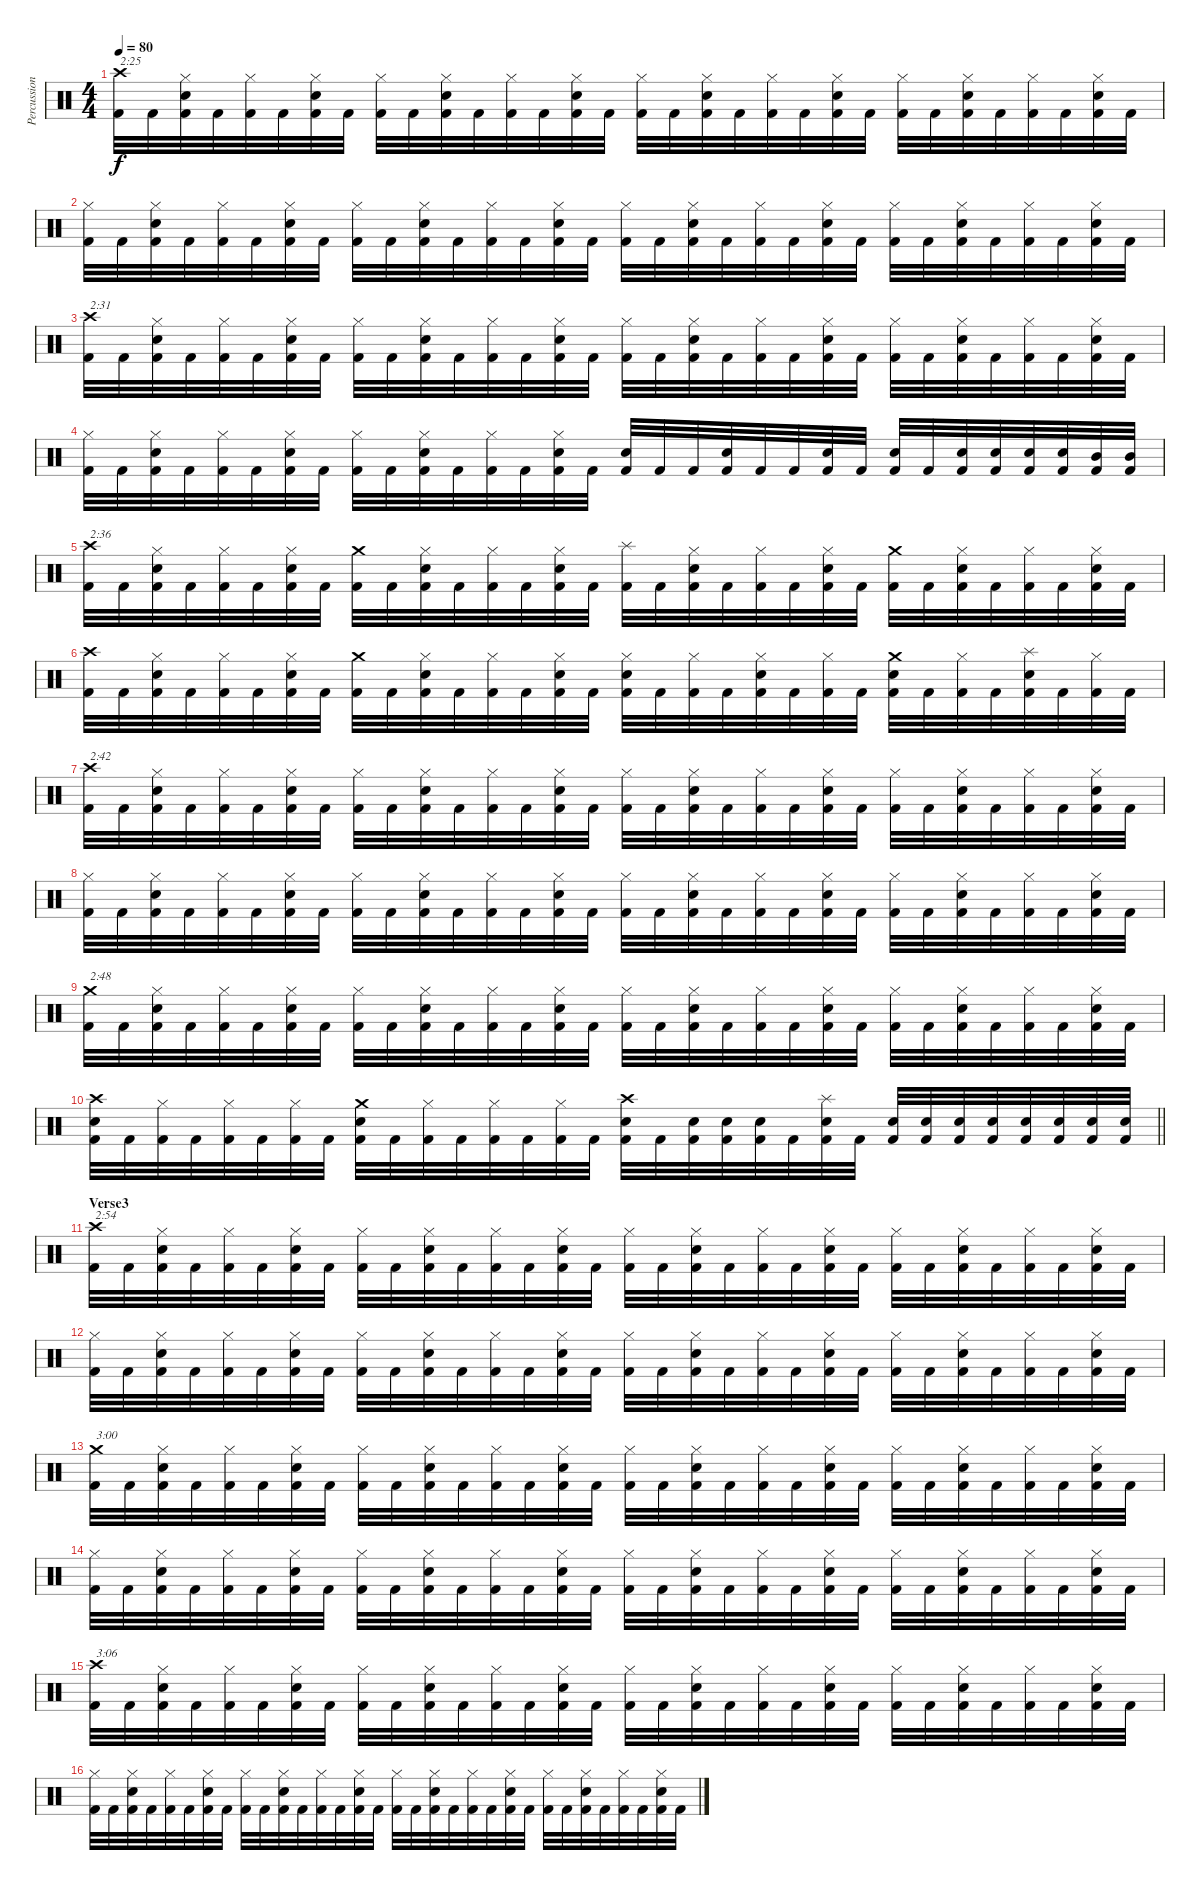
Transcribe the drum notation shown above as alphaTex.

\track ("Percussion" "Percussion") {instrument percussion}
\staff {score}
\articulation defaults
\ts (4 4)
\tempo 80
\clef neutral
\ks c
("Crash high (hit)" "Kick (hit) 2").32{txt "2:25" dy f} "Kick (hit) 2".32 ("Hi-Hat (closed)" "Snare (hit) 2" "Kick (hit) 2").32 "Kick (hit) 2".32 ("Hi-Hat (closed)" "Kick (hit) 2").32 "Kick (hit) 2".32 ("Hi-Hat (closed)" "Snare (hit) 2" "Kick (hit) 2").32 "Kick (hit) 2".32 ("Hi-Hat (closed)" "Kick (hit) 2").32 "Kick (hit) 2".32 ("Hi-Hat (closed)" "Snare (hit) 2" "Kick (hit) 2").32 "Kick (hit) 2".32 ("Hi-Hat (closed)" "Kick (hit) 2").32 "Kick (hit) 2".32 ("Hi-Hat (closed)" "Snare (hit) 2" "Kick (hit) 2").32 "Kick (hit) 2".32 ("Hi-Hat (closed)" "Kick (hit) 2").32 "Kick (hit) 2".32 ("Hi-Hat (closed)" "Snare (hit) 2" "Kick (hit) 2").32 "Kick (hit) 2".32 ("Hi-Hat (closed)" "Kick (hit) 2").32 "Kick (hit) 2".32 ("Hi-Hat (closed)" "Snare (hit) 2" "Kick (hit) 2").32 "Kick (hit) 2".32 ("Hi-Hat (closed)" "Kick (hit) 2").32 "Kick (hit) 2".32 ("Hi-Hat (closed)" "Snare (hit) 2" "Kick (hit) 2").32 "Kick (hit) 2".32 ("Hi-Hat (closed)" "Kick (hit) 2").32 "Kick (hit) 2".32 ("Hi-Hat (closed)" "Snare (hit) 2" "Kick (hit) 2").32 "Kick (hit) 2".32 |
("Hi-Hat (closed)" "Kick (hit) 2").32 "Kick (hit) 2".32 ("Hi-Hat (closed)" "Snare (hit) 2" "Kick (hit) 2").32 "Kick (hit) 2".32 ("Hi-Hat (closed)" "Kick (hit) 2").32 "Kick (hit) 2".32 ("Hi-Hat (closed)" "Snare (hit) 2" "Kick (hit) 2").32 "Kick (hit) 2".32 ("Hi-Hat (closed)" "Kick (hit) 2").32 "Kick (hit) 2".32 ("Hi-Hat (closed)" "Snare (hit) 2" "Kick (hit) 2").32 "Kick (hit) 2".32 ("Hi-Hat (closed)" "Kick (hit) 2").32 "Kick (hit) 2".32 ("Hi-Hat (closed)" "Snare (hit) 2" "Kick (hit) 2").32 "Kick (hit) 2".32 ("Hi-Hat (closed)" "Kick (hit) 2").32 "Kick (hit) 2".32 ("Hi-Hat (closed)" "Snare (hit) 2" "Kick (hit) 2").32 "Kick (hit) 2".32 ("Hi-Hat (closed)" "Kick (hit) 2").32 "Kick (hit) 2".32 ("Hi-Hat (closed)" "Snare (hit) 2" "Kick (hit) 2").32 "Kick (hit) 2".32 ("Hi-Hat (closed)" "Kick (hit) 2").32 "Kick (hit) 2".32 ("Hi-Hat (closed)" "Snare (hit) 2" "Kick (hit) 2").32 "Kick (hit) 2".32 ("Hi-Hat (closed)" "Kick (hit) 2").32 "Kick (hit) 2".32 ("Hi-Hat (closed)" "Snare (hit) 2" "Kick (hit) 2").32 "Kick (hit) 2".32 |
("Crash high (hit)" "Kick (hit) 2").32{txt "2:31"} "Kick (hit) 2".32 ("Hi-Hat (closed)" "Snare (hit) 2" "Kick (hit) 2").32 "Kick (hit) 2".32 ("Hi-Hat (closed)" "Kick (hit) 2").32 "Kick (hit) 2".32 ("Hi-Hat (closed)" "Snare (hit) 2" "Kick (hit) 2").32 "Kick (hit) 2".32 ("Hi-Hat (closed)" "Kick (hit) 2").32 "Kick (hit) 2".32 ("Hi-Hat (closed)" "Snare (hit) 2" "Kick (hit) 2").32 "Kick (hit) 2".32 ("Hi-Hat (closed)" "Kick (hit) 2").32 "Kick (hit) 2".32 ("Hi-Hat (closed)" "Snare (hit) 2" "Kick (hit) 2").32 "Kick (hit) 2".32 ("Hi-Hat (closed)" "Kick (hit) 2").32 "Kick (hit) 2".32 ("Hi-Hat (closed)" "Snare (hit) 2" "Kick (hit) 2").32 "Kick (hit) 2".32 ("Hi-Hat (closed)" "Kick (hit) 2").32 "Kick (hit) 2".32 ("Hi-Hat (closed)" "Snare (hit) 2" "Kick (hit) 2").32 "Kick (hit) 2".32 ("Hi-Hat (closed)" "Kick (hit) 2").32 "Kick (hit) 2".32 ("Hi-Hat (closed)" "Snare (hit) 2" "Kick (hit) 2").32 "Kick (hit) 2".32 ("Hi-Hat (closed)" "Kick (hit) 2").32 "Kick (hit) 2".32 ("Hi-Hat (closed)" "Snare (hit) 2" "Kick (hit) 2").32 "Kick (hit) 2".32 |
("Hi-Hat (closed)" "Kick (hit) 2").32 "Kick (hit) 2".32 ("Hi-Hat (closed)" "Snare (hit) 2" "Kick (hit) 2").32 "Kick (hit) 2".32 ("Hi-Hat (closed)" "Kick (hit) 2").32 "Kick (hit) 2".32 ("Hi-Hat (closed)" "Snare (hit) 2" "Kick (hit) 2").32 "Kick (hit) 2".32 ("Hi-Hat (closed)" "Kick (hit) 2").32 "Kick (hit) 2".32 ("Hi-Hat (closed)" "Snare (hit) 2" "Kick (hit) 2").32 "Kick (hit) 2".32 ("Hi-Hat (closed)" "Kick (hit) 2").32 "Kick (hit) 2".32 ("Hi-Hat (closed)" "Snare (hit) 2" "Kick (hit) 2").32 "Kick (hit) 2".32 ("Snare (hit) 2" "Kick (hit) 2").32 "Kick (hit) 2".32 "Kick (hit) 2".32 ("Snare (hit) 2" "Kick (hit) 2").32 "Kick (hit) 2".32 "Kick (hit) 2".32 ("Snare (hit) 2" "Kick (hit) 2").32 "Kick (hit) 2".32 ("Snare (hit) 2" "Kick (hit) 2").32 "Kick (hit) 2".32 ("Snare (hit) 2" "Kick (hit) 2").32 ("Snare (hit) 2" "Kick (hit) 2").32 ("Snare (hit) 2" "Kick (hit) 2").32 ("Snare (hit) 2" "Kick (hit) 2").32 ("Mid Tom (hit)" "Kick (hit) 2").32 ("Mid Tom (hit)" "Kick (hit) 2").32 |
("Crash high (hit)" "Kick (hit) 2").32{txt "2:36"} "Kick (hit) 2".32 ("Hi-Hat (closed)" "Snare (hit) 2" "Kick (hit) 2").32 "Kick (hit) 2".32 ("Hi-Hat (closed)" "Kick (hit) 2").32 "Kick (hit) 2".32 ("Hi-Hat (closed)" "Snare (hit) 2" "Kick (hit) 2").32 "Kick (hit) 2".32 ("Crash medium (hit)" "Kick (hit) 2").32 "Kick (hit) 2".32 ("Hi-Hat (closed)" "Snare (hit) 2" "Kick (hit) 2").32 "Kick (hit) 2".32 ("Hi-Hat (closed)" "Kick (hit) 2").32 "Kick (hit) 2".32 ("Hi-Hat (closed)" "Snare (hit) 2" "Kick (hit) 2").32 "Kick (hit) 2".32 ("Splash (hit)" "Kick (hit) 2").32 "Kick (hit) 2".32 ("Hi-Hat (closed)" "Snare (hit) 2" "Kick (hit) 2").32 "Kick (hit) 2".32 ("Hi-Hat (closed)" "Kick (hit) 2").32 "Kick (hit) 2".32 ("Hi-Hat (closed)" "Snare (hit) 2" "Kick (hit) 2").32 "Kick (hit) 2".32 ("Crash medium (hit)" "Kick (hit) 2").32 "Kick (hit) 2".32 ("Hi-Hat (closed)" "Snare (hit) 2" "Kick (hit) 2").32 "Kick (hit) 2".32 ("Hi-Hat (closed)" "Kick (hit) 2").32 "Kick (hit) 2".32 ("Hi-Hat (closed)" "Snare (hit) 2" "Kick (hit) 2").32 "Kick (hit) 2".32 |
("Crash high (hit)" "Kick (hit) 2").32 "Kick (hit) 2".32 ("Hi-Hat (closed)" "Snare (hit) 2" "Kick (hit) 2").32 "Kick (hit) 2".32 ("Hi-Hat (closed)" "Kick (hit) 2").32 "Kick (hit) 2".32 ("Hi-Hat (closed)" "Snare (hit) 2" "Kick (hit) 2").32 "Kick (hit) 2".32 ("Crash medium (hit)" "Kick (hit) 2").32 "Kick (hit) 2".32 ("Hi-Hat (closed)" "Snare (hit) 2" "Kick (hit) 2").32 "Kick (hit) 2".32 ("Hi-Hat (closed)" "Kick (hit) 2").32 "Kick (hit) 2".32 ("Hi-Hat (closed)" "Snare (hit) 2" "Kick (hit) 2").32 "Kick (hit) 2".32 ("Hi-Hat (closed)" "Snare (hit) 2" "Kick (hit) 2").32 "Kick (hit) 2".32 ("Hi-Hat (closed)" "Kick (hit) 2").32 "Kick (hit) 2".32 ("Hi-Hat (closed)" "Snare (hit) 2" "Kick (hit) 2").32 "Kick (hit) 2".32 ("Hi-Hat (closed)" "Kick (hit) 2").32 "Kick (hit) 2".32 ("Crash medium (hit)" "Snare (hit) 2" "Kick (hit) 2").32 "Kick (hit) 2".32 ("Hi-Hat (closed)" "Kick (hit) 2").32 "Kick (hit) 2".32 ("Splash (hit)" "Snare (hit) 2" "Kick (hit) 2").32 "Kick (hit) 2".32 ("Hi-Hat (closed)" "Kick (hit) 2").32 "Kick (hit) 2".32 |
("Crash high (hit)" "Kick (hit) 2").32{txt "2:42"} "Kick (hit) 2".32 ("Hi-Hat (closed)" "Snare (hit) 2" "Kick (hit) 2").32 "Kick (hit) 2".32 ("Hi-Hat (closed)" "Kick (hit) 2").32 "Kick (hit) 2".32 ("Hi-Hat (closed)" "Snare (hit) 2" "Kick (hit) 2").32 "Kick (hit) 2".32 ("Hi-Hat (closed)" "Kick (hit) 2").32 "Kick (hit) 2".32 ("Hi-Hat (closed)" "Snare (hit) 2" "Kick (hit) 2").32 "Kick (hit) 2".32 ("Hi-Hat (closed)" "Kick (hit) 2").32 "Kick (hit) 2".32 ("Hi-Hat (closed)" "Snare (hit) 2" "Kick (hit) 2").32 "Kick (hit) 2".32 ("Hi-Hat (closed)" "Kick (hit) 2").32 "Kick (hit) 2".32 ("Hi-Hat (closed)" "Snare (hit) 2" "Kick (hit) 2").32 "Kick (hit) 2".32 ("Hi-Hat (closed)" "Kick (hit) 2").32 "Kick (hit) 2".32 ("Hi-Hat (closed)" "Snare (hit) 2" "Kick (hit) 2").32 "Kick (hit) 2".32 ("Hi-Hat (closed)" "Kick (hit) 2").32 "Kick (hit) 2".32 ("Hi-Hat (closed)" "Snare (hit) 2" "Kick (hit) 2").32 "Kick (hit) 2".32 ("Hi-Hat (closed)" "Kick (hit) 2").32 "Kick (hit) 2".32 ("Hi-Hat (closed)" "Snare (hit) 2" "Kick (hit) 2").32 "Kick (hit) 2".32 |
("Hi-Hat (closed)" "Kick (hit) 2").32 "Kick (hit) 2".32 ("Hi-Hat (closed)" "Snare (hit) 2" "Kick (hit) 2").32 "Kick (hit) 2".32 ("Hi-Hat (closed)" "Kick (hit) 2").32 "Kick (hit) 2".32 ("Hi-Hat (closed)" "Snare (hit) 2" "Kick (hit) 2").32 "Kick (hit) 2".32 ("Hi-Hat (closed)" "Kick (hit) 2").32 "Kick (hit) 2".32 ("Hi-Hat (closed)" "Snare (hit) 2" "Kick (hit) 2").32 "Kick (hit) 2".32 ("Hi-Hat (closed)" "Kick (hit) 2").32 "Kick (hit) 2".32 ("Hi-Hat (closed)" "Snare (hit) 2" "Kick (hit) 2").32 "Kick (hit) 2".32 ("Hi-Hat (closed)" "Kick (hit) 2").32 "Kick (hit) 2".32 ("Hi-Hat (closed)" "Snare (hit) 2" "Kick (hit) 2").32 "Kick (hit) 2".32 ("Hi-Hat (closed)" "Kick (hit) 2").32 "Kick (hit) 2".32 ("Hi-Hat (closed)" "Snare (hit) 2" "Kick (hit) 2").32 "Kick (hit) 2".32 ("Hi-Hat (closed)" "Kick (hit) 2").32 "Kick (hit) 2".32 ("Hi-Hat (closed)" "Snare (hit) 2" "Kick (hit) 2").32 "Kick (hit) 2".32 ("Hi-Hat (closed)" "Kick (hit) 2").32 "Kick (hit) 2".32 ("Hi-Hat (closed)" "Snare (hit) 2" "Kick (hit) 2").32 "Kick (hit) 2".32 |
("Crash medium (hit)" "Kick (hit) 2").32{txt "2:48"} "Kick (hit) 2".32 ("Hi-Hat (closed)" "Snare (hit) 2" "Kick (hit) 2").32 "Kick (hit) 2".32 ("Hi-Hat (closed)" "Kick (hit) 2").32 "Kick (hit) 2".32 ("Hi-Hat (closed)" "Snare (hit) 2" "Kick (hit) 2").32 "Kick (hit) 2".32 ("Hi-Hat (closed)" "Kick (hit) 2").32 "Kick (hit) 2".32 ("Hi-Hat (closed)" "Snare (hit) 2" "Kick (hit) 2").32 "Kick (hit) 2".32 ("Hi-Hat (closed)" "Kick (hit) 2").32 "Kick (hit) 2".32 ("Hi-Hat (closed)" "Snare (hit) 2" "Kick (hit) 2").32 "Kick (hit) 2".32 ("Hi-Hat (closed)" "Kick (hit) 2").32 "Kick (hit) 2".32 ("Hi-Hat (closed)" "Snare (hit) 2" "Kick (hit) 2").32 "Kick (hit) 2".32 ("Hi-Hat (closed)" "Kick (hit) 2").32 "Kick (hit) 2".32 ("Hi-Hat (closed)" "Snare (hit) 2" "Kick (hit) 2").32 "Kick (hit) 2".32 ("Hi-Hat (closed)" "Kick (hit) 2").32 "Kick (hit) 2".32 ("Hi-Hat (closed)" "Snare (hit) 2" "Kick (hit) 2").32 "Kick (hit) 2".32 ("Hi-Hat (closed)" "Kick (hit) 2").32 "Kick (hit) 2".32 ("Hi-Hat (closed)" "Snare (hit) 2" "Kick (hit) 2").32 "Kick (hit) 2".32 |
\barLineRight lightlight
("Crash high (hit)" "Snare (hit) 2" "Kick (hit) 2").32 "Kick (hit) 2".32 ("Hi-Hat (closed)" "Kick (hit) 2").32 "Kick (hit) 2".32 ("Hi-Hat (closed)" "Kick (hit) 2").32 "Kick (hit) 2".32 ("Hi-Hat (closed)" "Kick (hit) 2").32 "Kick (hit) 2".32 ("Crash medium (hit)" "Snare (hit) 2" "Kick (hit) 2").32 "Kick (hit) 2".32 ("Hi-Hat (closed)" "Kick (hit) 2").32 "Kick (hit) 2".32 ("Hi-Hat (closed)" "Kick (hit) 2").32 "Kick (hit) 2".32 ("Hi-Hat (closed)" "Kick (hit) 2").32 "Kick (hit) 2".32 ("Crash high (hit)" "Snare (hit) 2" "Kick (hit) 2").32 "Kick (hit) 2".32 ("Snare (hit) 2" "Kick (hit) 2").32 ("Snare (hit) 2" "Kick (hit) 2").32 ("Snare (hit) 2" "Kick (hit) 2").32 "Kick (hit) 2".32 ("Splash (hit)" "Snare (hit) 2" "Kick (hit) 2").32 "Kick (hit) 2".32 ("Snare (hit) 2" "Kick (hit) 2").32 ("Snare (hit) 2" "Kick (hit) 2").32 ("Snare (hit) 2" "Kick (hit) 2").32 ("Snare (hit) 2" "Kick (hit) 2").32 ("Snare (hit) 2" "Kick (hit) 2").32 ("Snare (hit) 2" "Kick (hit) 2").32 ("Snare (hit) 2" "Kick (hit) 2").32 ("Snare (hit) 2" "Kick (hit) 2").32 |
\section ("" "Verse3")
("Crash high (hit)" "Kick (hit) 2").32{txt "2:54"} "Kick (hit) 2".32 ("Hi-Hat (closed)" "Snare (hit) 2" "Kick (hit) 2").32 "Kick (hit) 2".32 ("Hi-Hat (closed)" "Kick (hit) 2").32 "Kick (hit) 2".32 ("Hi-Hat (closed)" "Snare (hit) 2" "Kick (hit) 2").32 "Kick (hit) 2".32 ("Hi-Hat (closed)" "Kick (hit) 2").32 "Kick (hit) 2".32 ("Hi-Hat (closed)" "Snare (hit) 2" "Kick (hit) 2").32 "Kick (hit) 2".32 ("Hi-Hat (closed)" "Kick (hit) 2").32 "Kick (hit) 2".32 ("Hi-Hat (closed)" "Snare (hit) 2" "Kick (hit) 2").32 "Kick (hit) 2".32 ("Hi-Hat (closed)" "Kick (hit) 2").32 "Kick (hit) 2".32 ("Hi-Hat (closed)" "Snare (hit) 2" "Kick (hit) 2").32 "Kick (hit) 2".32 ("Hi-Hat (closed)" "Kick (hit) 2").32 "Kick (hit) 2".32 ("Hi-Hat (closed)" "Snare (hit) 2" "Kick (hit) 2").32 "Kick (hit) 2".32 ("Hi-Hat (closed)" "Kick (hit) 2").32 "Kick (hit) 2".32 ("Hi-Hat (closed)" "Snare (hit) 2" "Kick (hit) 2").32 "Kick (hit) 2".32 ("Hi-Hat (closed)" "Kick (hit) 2").32 "Kick (hit) 2".32 ("Hi-Hat (closed)" "Snare (hit) 2" "Kick (hit) 2").32 "Kick (hit) 2".32 |
("Hi-Hat (closed)" "Kick (hit) 2").32 "Kick (hit) 2".32 ("Hi-Hat (closed)" "Snare (hit) 2" "Kick (hit) 2").32 "Kick (hit) 2".32 ("Hi-Hat (closed)" "Kick (hit) 2").32 "Kick (hit) 2".32 ("Hi-Hat (closed)" "Snare (hit) 2" "Kick (hit) 2").32 "Kick (hit) 2".32 ("Hi-Hat (closed)" "Kick (hit) 2").32 "Kick (hit) 2".32 ("Hi-Hat (closed)" "Snare (hit) 2" "Kick (hit) 2").32 "Kick (hit) 2".32 ("Hi-Hat (closed)" "Kick (hit) 2").32 "Kick (hit) 2".32 ("Hi-Hat (closed)" "Snare (hit) 2" "Kick (hit) 2").32 "Kick (hit) 2".32 ("Hi-Hat (closed)" "Kick (hit) 2").32 "Kick (hit) 2".32 ("Hi-Hat (closed)" "Snare (hit) 2" "Kick (hit) 2").32 "Kick (hit) 2".32 ("Hi-Hat (closed)" "Kick (hit) 2").32 "Kick (hit) 2".32 ("Hi-Hat (closed)" "Snare (hit) 2" "Kick (hit) 2").32 "Kick (hit) 2".32 ("Hi-Hat (closed)" "Kick (hit) 2").32 "Kick (hit) 2".32 ("Hi-Hat (closed)" "Snare (hit) 2" "Kick (hit) 2").32 "Kick (hit) 2".32 ("Hi-Hat (closed)" "Kick (hit) 2").32 "Kick (hit) 2".32 ("Hi-Hat (closed)" "Snare (hit) 2" "Kick (hit) 2").32 "Kick (hit) 2".32 |
("Crash medium (hit)" "Kick (hit) 2").32{txt "3:00"} "Kick (hit) 2".32 ("Hi-Hat (closed)" "Snare (hit) 2" "Kick (hit) 2").32 "Kick (hit) 2".32 ("Hi-Hat (closed)" "Kick (hit) 2").32 "Kick (hit) 2".32 ("Hi-Hat (closed)" "Snare (hit) 2" "Kick (hit) 2").32 "Kick (hit) 2".32 ("Hi-Hat (closed)" "Kick (hit) 2").32 "Kick (hit) 2".32 ("Hi-Hat (closed)" "Snare (hit) 2" "Kick (hit) 2").32 "Kick (hit) 2".32 ("Hi-Hat (closed)" "Kick (hit) 2").32 "Kick (hit) 2".32 ("Hi-Hat (closed)" "Snare (hit) 2" "Kick (hit) 2").32 "Kick (hit) 2".32 ("Hi-Hat (closed)" "Kick (hit) 2").32 "Kick (hit) 2".32 ("Hi-Hat (closed)" "Snare (hit) 2" "Kick (hit) 2").32 "Kick (hit) 2".32 ("Hi-Hat (closed)" "Kick (hit) 2").32 "Kick (hit) 2".32 ("Hi-Hat (closed)" "Snare (hit) 2" "Kick (hit) 2").32 "Kick (hit) 2".32 ("Hi-Hat (closed)" "Kick (hit) 2").32 "Kick (hit) 2".32 ("Hi-Hat (closed)" "Snare (hit) 2" "Kick (hit) 2").32 "Kick (hit) 2".32 ("Hi-Hat (closed)" "Kick (hit) 2").32 "Kick (hit) 2".32 ("Hi-Hat (closed)" "Snare (hit) 2" "Kick (hit) 2").32 "Kick (hit) 2".32 |
("Hi-Hat (closed)" "Kick (hit) 2").32 "Kick (hit) 2".32 ("Hi-Hat (closed)" "Snare (hit) 2" "Kick (hit) 2").32 "Kick (hit) 2".32 ("Hi-Hat (closed)" "Kick (hit) 2").32 "Kick (hit) 2".32 ("Hi-Hat (closed)" "Snare (hit) 2" "Kick (hit) 2").32 "Kick (hit) 2".32 ("Hi-Hat (closed)" "Kick (hit) 2").32 "Kick (hit) 2".32 ("Hi-Hat (closed)" "Snare (hit) 2" "Kick (hit) 2").32 "Kick (hit) 2".32 ("Hi-Hat (closed)" "Kick (hit) 2").32 "Kick (hit) 2".32 ("Hi-Hat (closed)" "Snare (hit) 2" "Kick (hit) 2").32 "Kick (hit) 2".32 ("Hi-Hat (closed)" "Kick (hit) 2").32 "Kick (hit) 2".32 ("Hi-Hat (closed)" "Snare (hit) 2" "Kick (hit) 2").32 "Kick (hit) 2".32 ("Hi-Hat (closed)" "Kick (hit) 2").32 "Kick (hit) 2".32 ("Hi-Hat (closed)" "Snare (hit) 2" "Kick (hit) 2").32 "Kick (hit) 2".32 ("Hi-Hat (closed)" "Kick (hit) 2").32 "Kick (hit) 2".32 ("Hi-Hat (closed)" "Snare (hit) 2" "Kick (hit) 2").32 "Kick (hit) 2".32 ("Hi-Hat (closed)" "Kick (hit) 2").32 "Kick (hit) 2".32 ("Hi-Hat (closed)" "Snare (hit) 2" "Kick (hit) 2").32 "Kick (hit) 2".32 |
("Crash high (hit)" "Kick (hit) 2").32{txt "3:06"} "Kick (hit) 2".32 ("Hi-Hat (closed)" "Snare (hit) 2" "Kick (hit) 2").32 "Kick (hit) 2".32 ("Hi-Hat (closed)" "Kick (hit) 2").32 "Kick (hit) 2".32 ("Hi-Hat (closed)" "Snare (hit) 2" "Kick (hit) 2").32 "Kick (hit) 2".32 ("Hi-Hat (closed)" "Kick (hit) 2").32 "Kick (hit) 2".32 ("Hi-Hat (closed)" "Snare (hit) 2" "Kick (hit) 2").32 "Kick (hit) 2".32 ("Hi-Hat (closed)" "Kick (hit) 2").32 "Kick (hit) 2".32 ("Hi-Hat (closed)" "Snare (hit) 2" "Kick (hit) 2").32 "Kick (hit) 2".32 ("Hi-Hat (closed)" "Kick (hit) 2").32 "Kick (hit) 2".32 ("Hi-Hat (closed)" "Snare (hit) 2" "Kick (hit) 2").32 "Kick (hit) 2".32 ("Hi-Hat (closed)" "Kick (hit) 2").32 "Kick (hit) 2".32 ("Hi-Hat (closed)" "Snare (hit) 2" "Kick (hit) 2").32 "Kick (hit) 2".32 ("Hi-Hat (closed)" "Kick (hit) 2").32 "Kick (hit) 2".32 ("Hi-Hat (closed)" "Snare (hit) 2" "Kick (hit) 2").32 "Kick (hit) 2".32 ("Hi-Hat (closed)" "Kick (hit) 2").32 "Kick (hit) 2".32 ("Hi-Hat (closed)" "Snare (hit) 2" "Kick (hit) 2").32 "Kick (hit) 2".32 |
("Hi-Hat (closed)" "Kick (hit) 2").32 "Kick (hit) 2".32 ("Hi-Hat (closed)" "Snare (hit) 2" "Kick (hit) 2").32 "Kick (hit) 2".32 ("Hi-Hat (closed)" "Kick (hit) 2").32 "Kick (hit) 2".32 ("Hi-Hat (closed)" "Snare (hit) 2" "Kick (hit) 2").32 "Kick (hit) 2".32 ("Hi-Hat (closed)" "Kick (hit) 2").32 "Kick (hit) 2".32 ("Hi-Hat (closed)" "Snare (hit) 2" "Kick (hit) 2").32 "Kick (hit) 2".32 ("Hi-Hat (closed)" "Kick (hit) 2").32 "Kick (hit) 2".32 ("Hi-Hat (closed)" "Snare (hit) 2" "Kick (hit) 2").32 "Kick (hit) 2".32 ("Hi-Hat (closed)" "Kick (hit) 2").32 "Kick (hit) 2".32 ("Hi-Hat (closed)" "Snare (hit) 2" "Kick (hit) 2").32 "Kick (hit) 2".32 ("Hi-Hat (closed)" "Kick (hit) 2").32 "Kick (hit) 2".32 ("Hi-Hat (closed)" "Snare (hit) 2" "Kick (hit) 2").32 "Kick (hit) 2".32 ("Hi-Hat (closed)" "Kick (hit) 2").32 "Kick (hit) 2".32 ("Hi-Hat (closed)" "Snare (hit) 2" "Kick (hit) 2").32 "Kick (hit) 2".32 ("Hi-Hat (closed)" "Kick (hit) 2").32 "Kick (hit) 2".32 ("Hi-Hat (closed)" "Snare (hit) 2" "Kick (hit) 2").32 "Kick (hit) 2".32
